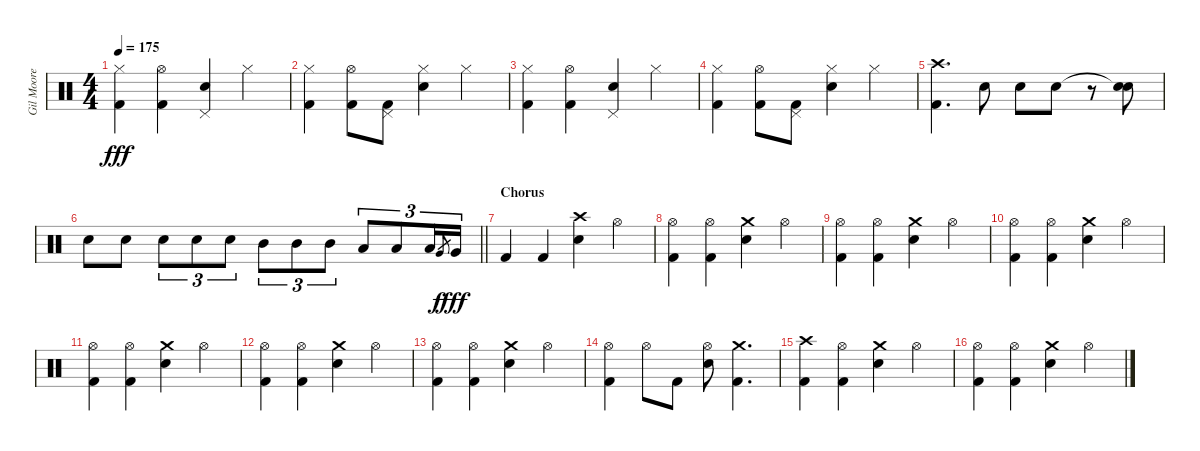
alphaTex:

\track ("Gil Moore" "Gil Moore") {instrument percussion}
\staff {score}
\articulation defaults
\ts (4 4)
\tempo 175
\clef neutral
\ks c
("Hi-Hat (closed)" "Kick (hit) 2").4{dy fff} ("Hi-Hat (open)" "Kick (hit) 2").4 ("Pedal Hi-Hat (hit)" "Snare (hit) 2").4 "Hi-Hat (closed)".4 |
("Hi-Hat (closed)" "Kick (hit) 2").4 ("Hi-Hat (open)" "Kick (hit) 2").8 ("Pedal Hi-Hat (hit)" "Kick (hit) 2").8 ("Hi-Hat (closed)" "Snare (hit) 2").4 "Hi-Hat (closed)".4 |
("Hi-Hat (closed)" "Kick (hit) 2").4 ("Hi-Hat (open)" "Kick (hit) 2").4 ("Pedal Hi-Hat (hit)" "Snare (hit) 2").4 "Hi-Hat (closed)".4 |
("Hi-Hat (closed)" "Kick (hit) 2").4 ("Hi-Hat (open)" "Kick (hit) 2").8 ("Pedal Hi-Hat (hit)" "Kick (hit) 2").8 ("Hi-Hat (closed)" "Snare (hit) 2").4 "Hi-Hat (closed)".4 |
("Crash high (hit)" "Kick (hit) 2").4{d} "Snare (hit) 2".8 "Snare (hit) 2".8 "Snare (hit) 2".8 r.8 ("Snare (hit)"{t} "Snare (hit) 2").8 |
\barLineRight lightlight "Snare (hit) 2".8 "Snare (hit) 2".8 "Snare (hit) 2".8{tu (3 2)} "Snare (hit) 2".8{tu (3 2)} "Snare (hit) 2".8{tu (3 2)} "Mid Tom (hit)".8{tu (3 2)} "Mid Tom (hit)".8{tu (3 2)} "Mid Tom (hit)".8{tu (3 2)} "Low Tom (hit)".8{tu (3 2)} "Low Tom (hit)".8{tu (3 2)} "Low Tom (hit)".16{tu (3 2)} "Very Low Tom (hit)".8{gr dy f} "Very Low Tom (hit)".16{tu (3 2) dy fff}
|
\section ("" "Chorus")
"Kick (hit) 2".4 "Kick (hit) 2".4 ("Crash high (hit)" "Snare (hit) 2").4 "Hi-Hat (open)".4 |
("Hi-Hat (open)" "Kick (hit) 2").4 ("Hi-Hat (open)" "Kick (hit) 2").4 ("Crash medium (hit)" "Snare (hit) 2").4 "Hi-Hat (open)".4 |
("Hi-Hat (open)" "Kick (hit) 2").4 ("Hi-Hat (open)" "Kick (hit) 2").4 ("Crash medium (hit)" "Snare (hit) 2").4 "Hi-Hat (open)".4 |
("Hi-Hat (open)" "Kick (hit) 2").4 ("Hi-Hat (open)" "Kick (hit) 2").4 ("Crash medium (hit)" "Snare (hit) 2").4 "Hi-Hat (open)".4 |
("Hi-Hat (open)" "Kick (hit) 2").4 ("Hi-Hat (open)" "Kick (hit) 2").4 ("Crash medium (hit)" "Snare (hit) 2").4 "Hi-Hat (open)".4 |
("Hi-Hat (open)" "Kick (hit) 2").4 ("Hi-Hat (open)" "Kick (hit) 2").4 ("Crash medium (hit)" "Snare (hit) 2").4 "Hi-Hat (open)".4 |
("Hi-Hat (open)" "Kick (hit) 2").4 ("Hi-Hat (open)" "Kick (hit) 2").4 ("Crash medium (hit)" "Snare (hit) 2").4 "Hi-Hat (open)".4 |
("Hi-Hat (open)" "Kick (hit) 2").4 "Hi-Hat (open)".8 "Kick (hit) 2".8 ("Hi-Hat (open)" "Snare (hit) 2").8 ("Crash medium (hit)" "Kick (hit) 2").4{d} |
("Crash high (hit)" "Kick (hit) 2").4 ("Hi-Hat (open)" "Kick (hit) 2").4 ("Crash medium (hit)" "Snare (hit) 2").4 "Hi-Hat (open)".4 |
("Hi-Hat (open)" "Kick (hit) 2").4 ("Hi-Hat (open)" "Kick (hit) 2").4 ("Crash medium (hit)" "Snare (hit) 2").4 "Hi-Hat (open)".4
